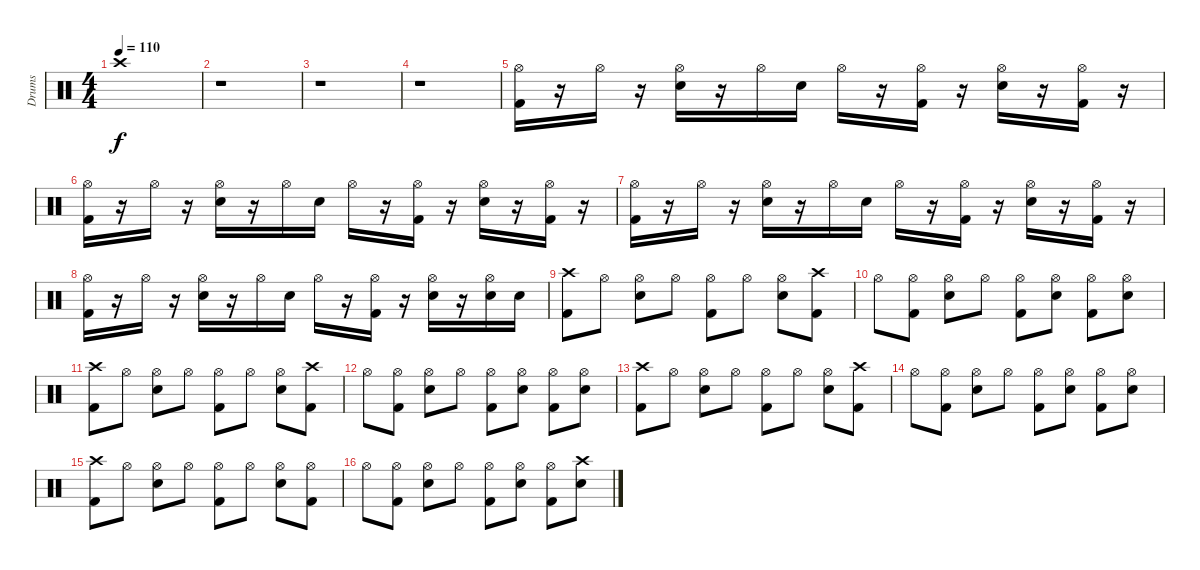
\track ("Drums" "Drums") {instrument percussion}
\staff {score}
\articulation defaults
\ts (4 4)
\tempo 110
\clef neutral
\ks c "Crash high (hit)".1{dy f}
|
r.1 |
r.1 |
r.1 |
("Hi-Hat (open)" "Kick (hit) 2").16 r.16 "Hi-Hat (open)".16 r.16 ("Hi-Hat (open)" "Electric Snare (hit)").16 r.16 "Hi-Hat (open)".16 "Electric Snare (hit)".16 "Hi-Hat (open)".16 r.16 ("Hi-Hat (open)" "Kick (hit) 2").16 r.16 ("Hi-Hat (open)" "Electric Snare (hit)").16 r.16 ("Hi-Hat (open)" "Kick (hit) 2").16 r.16 |
("Hi-Hat (open)" "Kick (hit) 2").16 r.16 "Hi-Hat (open)".16 r.16 ("Hi-Hat (open)" "Electric Snare (hit)").16 r.16 "Hi-Hat (open)".16 "Electric Snare (hit)".16 "Hi-Hat (open)".16 r.16 ("Hi-Hat (open)" "Kick (hit) 2").16 r.16 ("Hi-Hat (open)" "Electric Snare (hit)").16 r.16 ("Hi-Hat (open)" "Kick (hit) 2").16 r.16 |
("Hi-Hat (open)" "Kick (hit) 2").16 r.16 "Hi-Hat (open)".16 r.16 ("Hi-Hat (open)" "Electric Snare (hit)").16 r.16 "Hi-Hat (open)".16 "Electric Snare (hit)".16 "Hi-Hat (open)".16 r.16 ("Hi-Hat (open)" "Kick (hit) 2").16 r.16 ("Hi-Hat (open)" "Electric Snare (hit)").16 r.16 ("Hi-Hat (open)" "Kick (hit) 2").16 r.16 |
("Hi-Hat (open)" "Kick (hit) 2").16 r.16 "Hi-Hat (open)".16 r.16 ("Hi-Hat (open)" "Electric Snare (hit)").16 r.16 "Hi-Hat (open)".16 "Electric Snare (hit)".16 "Hi-Hat (open)".16 r.16 ("Hi-Hat (open)" "Kick (hit) 2").16 r.16 ("Hi-Hat (open)" "Electric Snare (hit)").16 r.16 ("Hi-Hat (open)" "Electric Snare (hit)").16 "Electric Snare (hit)".16 |
("Crash high (hit)" "Kick (hit) 2").8 "Hi-Hat (open)".8 ("Hi-Hat (open)" "Electric Snare (hit)").8 "Hi-Hat (open)".8 ("Hi-Hat (open)" "Kick (hit) 2").8 "Hi-Hat (open)".8 ("Hi-Hat (open)" "Electric Snare (hit)").8 ("Crash high (hit)" "Kick (hit) 2").8 |
"Hi-Hat (open)".8 ("Hi-Hat (open)" "Kick (hit) 2").8 ("Hi-Hat (open)" "Electric Snare (hit)").8 "Hi-Hat (open)".8 ("Hi-Hat (open)" "Kick (hit) 2").8 ("Hi-Hat (open)" "Electric Snare (hit)").8 ("Hi-Hat (open)" "Kick (hit) 2").8 ("Hi-Hat (open)" "Electric Snare (hit)").8 |
("Crash high (hit)" "Kick (hit) 2").8 "Hi-Hat (open)".8 ("Hi-Hat (open)" "Electric Snare (hit)").8 "Hi-Hat (open)".8 ("Hi-Hat (open)" "Kick (hit) 2").8 "Hi-Hat (open)".8 ("Hi-Hat (open)" "Electric Snare (hit)").8 ("Crash high (hit)" "Kick (hit) 2").8 |
"Hi-Hat (open)".8 ("Hi-Hat (open)" "Kick (hit) 2").8 ("Hi-Hat (open)" "Electric Snare (hit)").8 "Hi-Hat (open)".8 ("Hi-Hat (open)" "Kick (hit) 2").8 ("Hi-Hat (open)" "Electric Snare (hit)").8 ("Hi-Hat (open)" "Kick (hit) 2").8 ("Hi-Hat (open)" "Electric Snare (hit)").8 |
("Crash high (hit)" "Kick (hit) 2").8 "Hi-Hat (open)".8 ("Hi-Hat (open)" "Electric Snare (hit)").8 "Hi-Hat (open)".8 ("Hi-Hat (open)" "Kick (hit) 2").8 "Hi-Hat (open)".8 ("Hi-Hat (open)" "Electric Snare (hit)").8 ("Crash high (hit)" "Kick (hit) 2").8 |
"Hi-Hat (open)".8 ("Hi-Hat (open)" "Kick (hit) 2").8 ("Hi-Hat (open)" "Electric Snare (hit)").8 "Hi-Hat (open)".8 ("Hi-Hat (open)" "Kick (hit) 2").8 ("Hi-Hat (open)" "Electric Snare (hit)").8 ("Hi-Hat (open)" "Kick (hit) 2").8 ("Hi-Hat (open)" "Electric Snare (hit)").8 |
("Crash high (hit)" "Kick (hit) 2").8 "Hi-Hat (open)".8 ("Hi-Hat (open)" "Electric Snare (hit)").8 "Hi-Hat (open)".8 ("Hi-Hat (open)" "Kick (hit) 2").8 "Hi-Hat (open)".8 ("Hi-Hat (open)" "Electric Snare (hit)").8 ("Hi-Hat (open)" "Kick (hit) 2").8 |
"Hi-Hat (open)".8 ("Hi-Hat (open)" "Kick (hit) 2").8 ("Hi-Hat (open)" "Electric Snare (hit)").8 "Hi-Hat (open)".8 ("Hi-Hat (open)" "Kick (hit) 2").8 ("Hi-Hat (open)" "Electric Snare (hit)").8 ("Hi-Hat (open)" "Kick (hit) 2").8 ("Crash high (hit)" "Electric Snare (hit)").8
